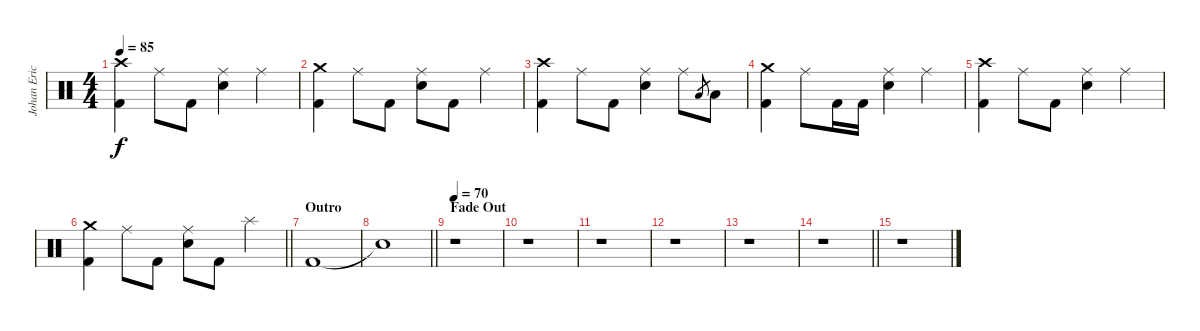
\track ("Johan Ericson" "Johan Eric") {instrument percussion}
\staff {score}
\articulation defaults
\ts (4 4)
\tempo 85
\clef neutral
\ks c
("Crash high (hit)" "Kick (hit) 2").4{dy f} "Ride (middle)".8 "Kick (hit) 2".8 ("Ride (middle)" "Snare (hit) 2").4 "Ride (middle)".4 |
("Crash medium (hit)" "Kick (hit) 2").4 "Ride (middle)".8 "Kick (hit) 2".8 ("Ride (middle)" "Snare (hit) 2").8 "Kick (hit) 2".8 "Ride (middle)".4 |
("Crash high (hit)" "Kick (hit) 2").4 "Ride (middle)".8 "Kick (hit) 2".8 ("Ride (middle)" "Snare (hit) 2").4 "Ride (middle)".8 "Low Tom (hit)".8{gr} "Low Tom (hit)".8 |
("Crash medium (hit)" "Kick (hit) 2").4 "Ride (middle)".8 "Kick (hit) 2".16 "Kick (hit) 2".16 ("Ride (middle)" "Snare (hit) 2").4 "Ride (middle)".4 |
("Crash high (hit)" "Kick (hit) 2").4 "Ride (middle)".8 "Kick (hit) 2".8 ("Ride (middle)" "Snare (hit) 2").4 "Ride (middle)".4 |
\barLineRight lightlight
("Crash medium (hit)" "Kick (hit) 2").4{volume 0} "Ride (middle)".8 "Kick (hit) 2".8 ("Ride (middle)" "Snare (hit) 2").8 "Kick (hit) 2".8 "Splash (hit)".4 |
\section ("" "Outro")
"Kick (hit) 2".1 |
\barLineRight lightlight "Snare (hit)"{t}.1
|
\section ("" "Fade Out")
\tempo 70
r.1 |
r.1 |
r.1 |
r.1 |
r.1 |
\barLineRight lightlight
r.1 |
r.1
